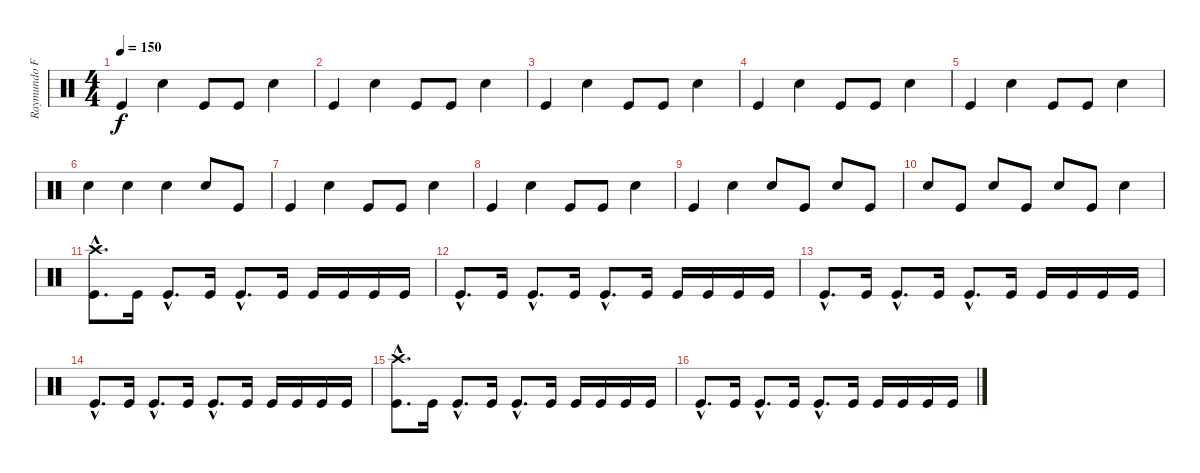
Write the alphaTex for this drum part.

\track ("Raymundo Fajardo" "Raymundo F") {instrument percussion}
\staff {score}
\articulation defaults
\ts (4 4)
\tempo 150
\clef neutral
\ks c "Kick (hit)".4{dy f} "Electric Snare (hit)".4 "Kick (hit)".8 "Kick (hit)".8 "Electric Snare (hit)".4
|
"Kick (hit)".4 "Electric Snare (hit)".4 "Kick (hit)".8 "Kick (hit)".8 "Electric Snare (hit)".4 |
"Kick (hit)".4 "Electric Snare (hit)".4 "Kick (hit)".8 "Kick (hit)".8 "Electric Snare (hit)".4 |
"Kick (hit)".4 "Electric Snare (hit)".4 "Kick (hit)".8 "Kick (hit)".8 "Electric Snare (hit)".4 |
"Kick (hit)".4 "Electric Snare (hit)".4 "Kick (hit)".8 "Kick (hit)".8 "Electric Snare (hit)".4 |
"Electric Snare (hit)".4 "Electric Snare (hit)".4 "Electric Snare (hit)".4 "Electric Snare (hit)".8 "Kick (hit)".8 |
"Kick (hit)".4 "Electric Snare (hit)".4 "Kick (hit)".8 "Kick (hit)".8 "Electric Snare (hit)".4 |
"Kick (hit)".4 "Electric Snare (hit)".4 "Kick (hit)".8 "Kick (hit)".8 "Electric Snare (hit)".4 |
"Kick (hit)".4 "Electric Snare (hit)".4 "Electric Snare (hit)".8 "Kick (hit)".8 "Electric Snare (hit)".8 "Kick (hit)".8 |
"Electric Snare (hit)".8 "Kick (hit)".8 "Electric Snare (hit)".8 "Kick (hit)".8 "Electric Snare (hit)".8 "Kick (hit)".8 "Electric Snare (hit)".4 |
("Crash high (hit)"{hac} "Kick (hit)"{hac}).8{d} "Kick (hit)".16 "Kick (hit)"{hac}.8{d} "Kick (hit)".16 "Kick (hit)"{hac}.8{d} "Kick (hit)".16 "Kick (hit)".16 "Kick (hit)".16 "Kick (hit)".16 "Kick (hit)".16 |
"Kick (hit)"{hac}.8{d} "Kick (hit)".16 "Kick (hit)"{hac}.8{d} "Kick (hit)".16 "Kick (hit)"{hac}.8{d} "Kick (hit)".16 "Kick (hit)".16 "Kick (hit)".16 "Kick (hit)".16 "Kick (hit)".16 |
"Kick (hit)"{hac}.8{d} "Kick (hit)".16 "Kick (hit)"{hac}.8{d} "Kick (hit)".16 "Kick (hit)"{hac}.8{d} "Kick (hit)".16 "Kick (hit)".16 "Kick (hit)".16 "Kick (hit)".16 "Kick (hit)".16 |
"Kick (hit)"{hac}.8{d} "Kick (hit)".16 "Kick (hit)"{hac}.8{d} "Kick (hit)".16 "Kick (hit)"{hac}.8{d} "Kick (hit)".16 "Kick (hit)".16 "Kick (hit)".16 "Kick (hit)".16 "Kick (hit)".16 |
("Crash high (hit)"{hac} "Kick (hit)"{hac}).8{d} "Kick (hit)".16 "Kick (hit)"{hac}.8{d} "Kick (hit)".16 "Kick (hit)"{hac}.8{d} "Kick (hit)".16 "Kick (hit)".16 "Kick (hit)".16 "Kick (hit)".16 "Kick (hit)".16 |
"Kick (hit)"{hac}.8{d} "Kick (hit)".16 "Kick (hit)"{hac}.8{d} "Kick (hit)".16 "Kick (hit)"{hac}.8{d} "Kick (hit)".16 "Kick (hit)".16 "Kick (hit)".16 "Kick (hit)".16 "Kick (hit)".16
